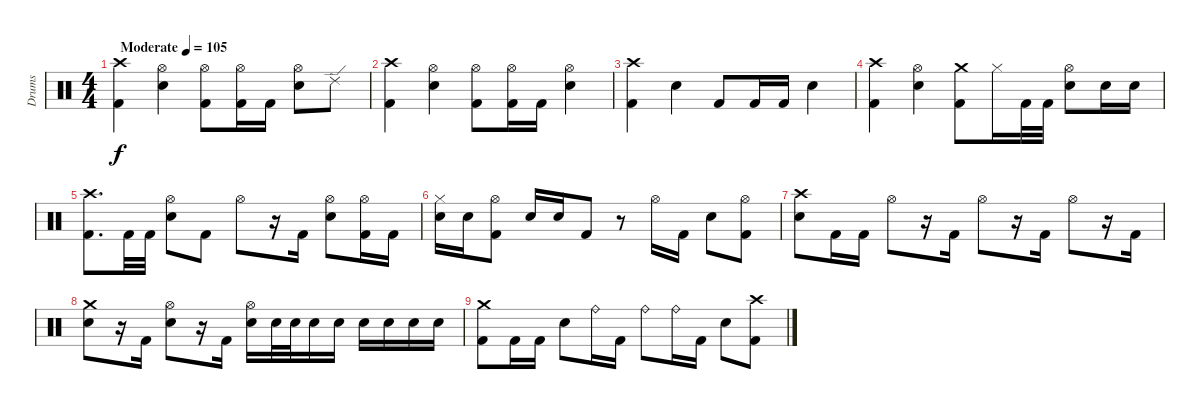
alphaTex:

\track ("Drums" "Drums") {instrument percussion}
\staff {score}
\articulation defaults
\ts (4 4)
\tempo (105 "Moderate")
\clef neutral
\ks c
("Crash high (hit)" "Kick (hit) 2").4{dy f} ("Hi-Hat (open)" "Electric Snare (hit)").4 ("Hi-Hat (open)" "Kick (hit) 2").8 ("Hi-Hat (open)" "Kick (hit) 2").16 "Kick (hit) 2".16 ("Hi-Hat (open)" "Electric Snare (hit)").8 "Ride (edge) 2".8 |
("Crash high (hit)" "Kick (hit) 2").4 ("Hi-Hat (open)" "Electric Snare (hit)").4 ("Hi-Hat (open)" "Kick (hit) 2").8 ("Hi-Hat (open)" "Kick (hit) 2").16 "Kick (hit) 2".16 ("Hi-Hat (open)" "Electric Snare (hit)").4 |
("Crash high (hit)" "Kick (hit) 2").4 "Electric Snare (hit)".4 "Kick (hit) 2".8 "Kick (hit) 2".16 "Kick (hit) 2".16 "Electric Snare (hit)".4 |
("Crash high (hit)" "Kick (hit) 2").4 ("Hi-Hat (open)" "Electric Snare (hit)").4 ("Crash medium (hit)" "Kick (hit) 2").8 "Hi-Hat (closed)".16 "Kick (hit) 2".32 "Kick (hit) 2".32 ("Hi-Hat (open)" "Electric Snare (hit)").8 "Electric Snare (hit)".16 "Electric Snare (hit)".16 |
("Crash high (hit)" "Kick (hit) 2").8{d} "Kick (hit) 2".32 "Kick (hit) 2".32 ("Hi-Hat (open)" "Electric Snare (hit)").8 "Kick (hit) 2".8 "Hi-Hat (open)".8 r.16 "Kick (hit) 2".16 ("Hi-Hat (open)" "Electric Snare (hit)").8 ("Hi-Hat (open)" "Kick (hit) 2").16 "Kick (hit) 2".16 |
("Hi-Hat (closed)" "Electric Snare (hit)").16 "Electric Snare (hit)".16 ("Hi-Hat (open)" "Kick (hit) 2").8 "Electric Snare (hit)".16 "Electric Snare (hit)".16 "Kick (hit) 2".8 r.8 "Hi-Hat (open)".16 "Kick (hit) 2".16 "Electric Snare (hit)".8 ("Hi-Hat (open)" "Kick (hit) 2").8 |
("Crash high (hit)" "Electric Snare (hit)").8 "Kick (hit) 2".16 "Kick (hit) 2".16 "Hi-Hat (open)".8 r.16 "Kick (hit) 2".16 "Hi-Hat (open)".8 r.16 "Kick (hit) 2".16 "Hi-Hat (open)".8 r.16 "Kick (hit) 2".16 |
("Crash medium (hit)" "Electric Snare (hit)").8 r.16 "Kick (hit) 2".16 ("Hi-Hat (open)" "Electric Snare (hit)").8 r.16 "Kick (hit) 2".16 ("Hi-Hat (open)" "Electric Snare (hit)").16 "Electric Snare (hit)".32 "Electric Snare (hit)".32 "Electric Snare (hit)".16 "Electric Snare (hit)".16 "Electric Snare (hit)".16 "Electric Snare (hit)".16 "Electric Snare (hit)".16 "Electric Snare (hit)".16 |
("Crash medium (hit)" "Kick (hit) 2").8 "Kick (hit) 2".16 "Kick (hit) 2".16 "Electric Snare (hit)".8 "Ride (bell)".16 "Kick (hit) 2".16 "Ride (bell)".8 "Ride (bell)".16 "Kick (hit) 2".16 "Electric Snare (hit)".8 ("Crash high (hit)" "Kick (hit) 2").8
